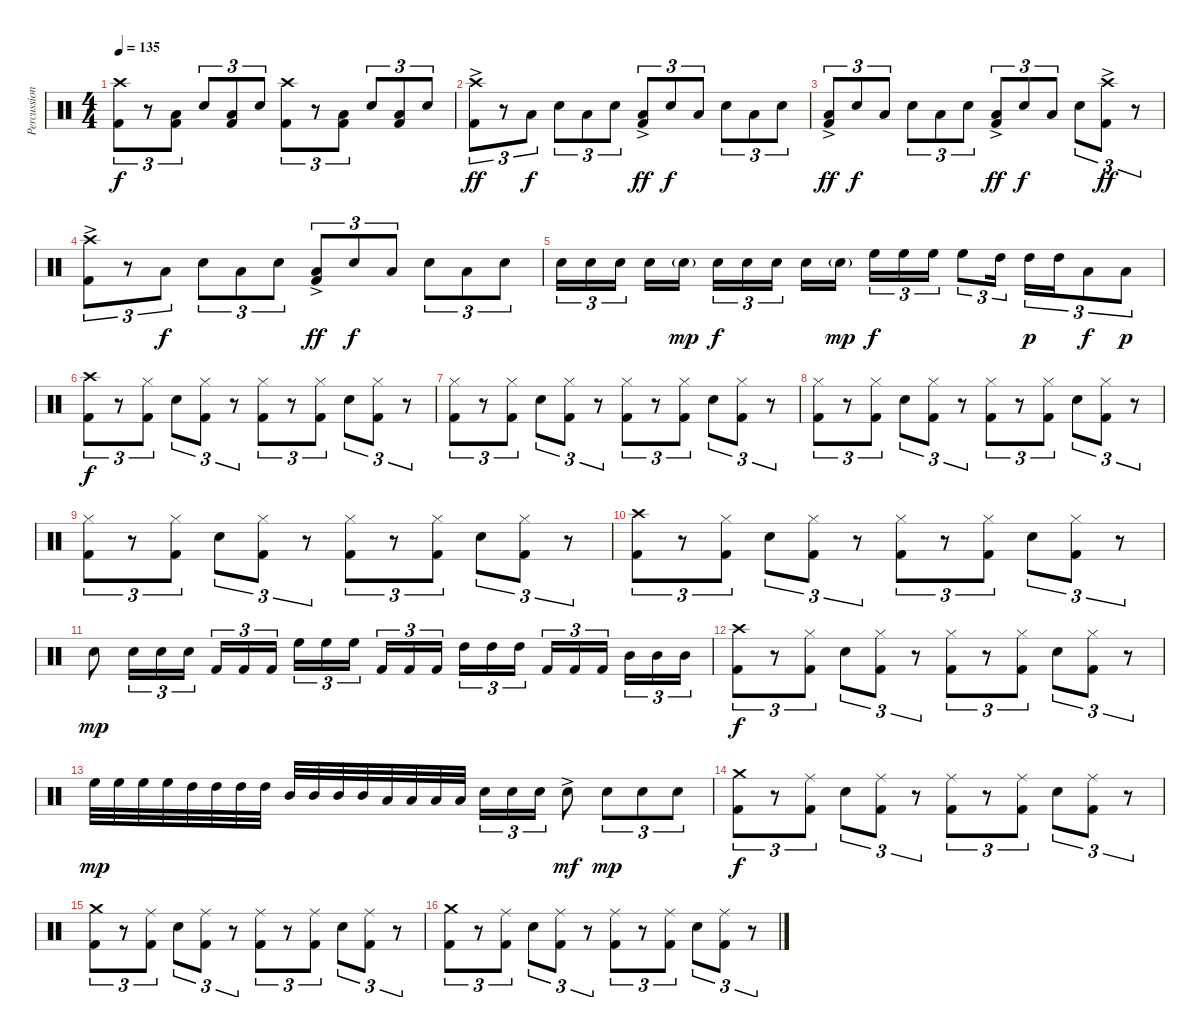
\track ("Percussioni" "Percussion") {instrument percussion}
\staff {score}
\articulation defaults
\ts (4 4)
\tempo 135
\clef neutral
\ks c
("Crash high (hit)" "Kick (hit) 2").8{tu (3 2) dy f} r.8{tu (3 2)} ("Low Tom (hit)" "Kick (hit) 2").8{tu (3 2)} "Electric Snare (hit)".8{tu (3 2)} ("Low Tom (hit)" "Kick (hit) 2").8{tu (3 2)} "Electric Snare (hit)".8{tu (3 2)} ("Crash high (hit)" "Kick (hit) 2").8{tu (3 2)} r.8{tu (3 2)} ("Low Tom (hit)" "Kick (hit) 2").8{tu (3 2)} "Electric Snare (hit)".8{tu (3 2)} ("Low Tom (hit)" "Kick (hit) 2").8{tu (3 2)} "Electric Snare (hit)".8{tu (3 2)} |
("Crash high (hit)" "Kick (hit) 2"{ac}).8{tu (3 2) dy ff} r.8{tu (3 2)} "Low Tom (hit)".8{tu (3 2) dy f} "Electric Snare (hit)".8{tu (3 2)} "Low Tom (hit)".8{tu (3 2)} "Electric Snare (hit)".8{tu (3 2)} ("Low Tom (hit)"{ac} "Kick (hit) 2"{ac}).8{tu (3 2) dy ff} "Electric Snare (hit)".8{tu (3 2) dy f} "Low Tom (hit)".8{tu (3 2)} "Electric Snare (hit)".8{tu (3 2)} "Low Tom (hit)".8{tu (3 2)} "Electric Snare (hit)".8{tu (3 2)} |
("Low Tom (hit)"{ac} "Kick (hit) 2"{ac}).8{tu (3 2) dy ff} "Electric Snare (hit)".8{tu (3 2) dy f} "Low Tom (hit)".8{tu (3 2)} "Electric Snare (hit)".8{tu (3 2)} "Low Tom (hit)".8{tu (3 2)} "Electric Snare (hit)".8{tu (3 2)} ("Low Tom (hit)"{ac} "Kick (hit) 2"{ac}).8{tu (3 2) dy ff} "Electric Snare (hit)".8{tu (3 2) dy f} "Low Tom (hit)".8{tu (3 2)} "Electric Snare (hit)".8{tu (3 2)} ("Crash high (hit)"{ac} "Kick (hit) 2"{ac}).8{tu (3 2) dy ff} r.8{tu (3 2)} |
("Crash high (hit)" "Kick (hit) 2"{ac}).8{tu (3 2)} r.8{tu (3 2)} "Low Tom (hit)".8{tu (3 2) dy f} "Electric Snare (hit)".8{tu (3 2)} "Low Tom (hit)".8{tu (3 2)} "Electric Snare (hit)".8{tu (3 2)} ("Low Tom (hit)"{ac} "Kick (hit) 2"{ac}).8{tu (3 2) dy ff} "Electric Snare (hit)".8{tu (3 2) dy f} "Low Tom (hit)".8{tu (3 2)} "Electric Snare (hit)".8{tu (3 2)} "Low Tom (hit)".8{tu (3 2)} "Electric Snare (hit)".8{tu (3 2)} |
"Electric Snare (hit)".16{tu (3 2)} "Electric Snare (hit)".16{tu (3 2)} "Electric Snare (hit)".16{tu (3 2) beam splitsecondary} "Electric Snare (hit)".16 "Electric Snare (hit)"{g}.16{dy mp} "Electric Snare (hit)".16{tu (3 2) dy f} "Electric Snare (hit)".16{tu (3 2)} "Electric Snare (hit)".16{tu (3 2) beam splitsecondary} "Electric Snare (hit)".16 "Electric Snare (hit)"{g}.16{dy mp} "High Floor Tom (hit)".16{tu (3 2) dy f} "High Floor Tom (hit)".16{tu (3 2)} "High Floor Tom (hit)".16{tu (3 2)} "High Floor Tom (hit)".8{tu (3 2)} "High Tom (hit)".16{tu (3 2)} "High Tom (hit)".16{tu (3 2) dy p} "High Tom (hit)".16{tu (3 2)} "Low Tom (hit)".8{tu (3 2) dy f} "Low Tom (hit)".8{tu (3 2) dy p} |
("Crash high (hit)" "Kick (hit) 2").8{tu (3 2) dy f} r.8{tu (3 2)} ("Hi-Hat (closed)" "Kick (hit) 2").8{tu (3 2)} "Electric Snare (hit)".8{tu (3 2)} ("Hi-Hat (closed)" "Kick (hit) 2").8{tu (3 2)} r.8{tu (3 2)} ("Hi-Hat (closed)" "Kick (hit) 2").8{tu (3 2)} r.8{tu (3 2)} ("Hi-Hat (closed)" "Kick (hit) 2").8{tu (3 2)} "Electric Snare (hit)".8{tu (3 2)} ("Hi-Hat (closed)" "Kick (hit) 2").8{tu (3 2)} r.8{tu (3 2)} |
("Hi-Hat (closed)" "Kick (hit) 2").8{tu (3 2)} r.8{tu (3 2)} ("Hi-Hat (closed)" "Kick (hit) 2").8{tu (3 2)} "Electric Snare (hit)".8{tu (3 2)} ("Hi-Hat (closed)" "Kick (hit) 2").8{tu (3 2)} r.8{tu (3 2)} ("Hi-Hat (closed)" "Kick (hit) 2").8{tu (3 2)} r.8{tu (3 2)} ("Hi-Hat (closed)" "Kick (hit) 2").8{tu (3 2)} "Electric Snare (hit)".8{tu (3 2)} ("Hi-Hat (closed)" "Kick (hit) 2").8{tu (3 2)} r.8{tu (3 2)} |
("Hi-Hat (closed)" "Kick (hit) 2").8{tu (3 2)} r.8{tu (3 2)} ("Hi-Hat (closed)" "Kick (hit) 2").8{tu (3 2)} "Electric Snare (hit)".8{tu (3 2)} ("Hi-Hat (closed)" "Kick (hit) 2").8{tu (3 2)} r.8{tu (3 2)} ("Hi-Hat (closed)" "Kick (hit) 2").8{tu (3 2)} r.8{tu (3 2)} ("Hi-Hat (closed)" "Kick (hit) 2").8{tu (3 2)} "Electric Snare (hit)".8{tu (3 2)} ("Hi-Hat (closed)" "Kick (hit) 2").8{tu (3 2)} r.8{tu (3 2)} |
("Hi-Hat (closed)" "Kick (hit) 2").8{tu (3 2)} r.8{tu (3 2)} ("Hi-Hat (closed)" "Kick (hit) 2").8{tu (3 2)} "Electric Snare (hit)".8{tu (3 2)} ("Hi-Hat (closed)" "Kick (hit) 2").8{tu (3 2)} r.8{tu (3 2)} ("Hi-Hat (closed)" "Kick (hit) 2").8{tu (3 2)} r.8{tu (3 2)} ("Hi-Hat (closed)" "Kick (hit) 2").8{tu (3 2)} "Electric Snare (hit)".8{tu (3 2)} ("Hi-Hat (closed)" "Kick (hit) 2").8{tu (3 2)} r.8{tu (3 2)} |
("Crash high (hit)" "Kick (hit) 2").8{tu (3 2)} r.8{tu (3 2)} ("Hi-Hat (closed)" "Kick (hit) 2").8{tu (3 2)} "Electric Snare (hit)".8{tu (3 2)} ("Hi-Hat (closed)" "Kick (hit) 2").8{tu (3 2)} r.8{tu (3 2)} ("Hi-Hat (closed)" "Kick (hit) 2").8{tu (3 2)} r.8{tu (3 2)} ("Hi-Hat (closed)" "Kick (hit) 2").8{tu (3 2)} "Electric Snare (hit)".8{tu (3 2)} ("Hi-Hat (closed)" "Kick (hit) 2").8{tu (3 2)} r.8{tu (3 2)} |
"Electric Snare (hit)".8{dy mp} "Electric Snare (hit)".16{tu (3 2)} "Electric Snare (hit)".16{tu (3 2)} "Electric Snare (hit)".16{tu (3 2)} "Kick (hit) 2".16{tu (3 2)} "Kick (hit) 2".16{tu (3 2)} "Kick (hit) 2".16{tu (3 2) beam splitsecondary} "High Floor Tom (hit)".16{tu (3 2)} "High Floor Tom (hit)".16{tu (3 2)} "High Floor Tom (hit)".16{tu (3 2)} "Kick (hit) 2".16{tu (3 2)} "Kick (hit) 2".16{tu (3 2)} "Kick (hit) 2".16{tu (3 2) beam splitsecondary} "High Tom (hit)".16{tu (3 2)} "High Tom (hit)".16{tu (3 2)} "High Tom (hit)".16{tu (3 2)} "Kick (hit) 2".16{tu (3 2)} "Kick (hit) 2".16{tu (3 2)} "Kick (hit) 2".16{tu (3 2) beam splitsecondary} "Mid Tom (hit)".16{tu (3 2)} "Mid Tom (hit)".16{tu (3 2)} "Mid Tom (hit)".16{tu (3 2)} |
("Crash high (hit)" "Kick (hit) 2").8{tu (3 2) dy f} r.8{tu (3 2)} ("Hi-Hat (closed)" "Kick (hit) 2").8{tu (3 2)} "Electric Snare (hit)".8{tu (3 2)} ("Hi-Hat (closed)" "Kick (hit) 2").8{tu (3 2)} r.8{tu (3 2)} ("Hi-Hat (closed)" "Kick (hit) 2").8{tu (3 2)} r.8{tu (3 2)} ("Hi-Hat (closed)" "Kick (hit) 2").8{tu (3 2)} "Electric Snare (hit)".8{tu (3 2)} ("Hi-Hat (closed)" "Kick (hit) 2").8{tu (3 2)} r.8{tu (3 2)} |
"High Floor Tom (hit)".32{dy mp} "High Floor Tom (hit)".32 "High Floor Tom (hit)".32 "High Floor Tom (hit)".32 "High Tom (hit)".32 "High Tom (hit)".32 "High Tom (hit)".32 "High Tom (hit)".32 "Mid Tom (hit)".32 "Mid Tom (hit)".32 "Mid Tom (hit)".32 "Mid Tom (hit)".32 "Low Tom (hit)".32 "Low Tom (hit)".32 "Low Tom (hit)".32 "Low Tom (hit)".32 "Electric Snare (hit)".16{tu (3 2)} "Electric Snare (hit)".16{tu (3 2)} "Electric Snare (hit)".16{tu (3 2)} "Electric Snare (hit)"{ac}.8{dy mf} "Electric Snare (hit)".8{tu (3 2) dy mp} "Electric Snare (hit)".8{tu (3 2)} "Electric Snare (hit)".8{tu (3 2)} |
("Crash medium (hit)" "Kick (hit) 2").8{tu (3 2) dy f} r.8{tu (3 2)} ("Ride (middle)" "Kick (hit) 2").8{tu (3 2)} "Electric Snare (hit)".8{tu (3 2)} ("Ride (middle)" "Kick (hit) 2").8{tu (3 2)} r.8{tu (3 2)} ("Ride (middle)" "Kick (hit) 2").8{tu (3 2)} r.8{tu (3 2)} ("Ride (middle)" "Kick (hit) 2").8{tu (3 2)} "Electric Snare (hit)".8{tu (3 2)} ("Ride (middle)" "Kick (hit) 2").8{tu (3 2)} r.8{tu (3 2)} |
("Crash medium (hit)" "Kick (hit) 2").8{tu (3 2)} r.8{tu (3 2)} ("Ride (middle)" "Kick (hit) 2").8{tu (3 2)} "Electric Snare (hit)".8{tu (3 2)} ("Ride (middle)" "Kick (hit) 2").8{tu (3 2)} r.8{tu (3 2)} ("Ride (middle)" "Kick (hit) 2").8{tu (3 2)} r.8{tu (3 2)} ("Ride (middle)" "Kick (hit) 2").8{tu (3 2)} "Electric Snare (hit)".8{tu (3 2)} ("Ride (middle)" "Kick (hit) 2").8{tu (3 2)} r.8{tu (3 2)} |
("Crash medium (hit)" "Kick (hit) 2").8{tu (3 2)} r.8{tu (3 2)} ("Ride (middle)" "Kick (hit) 2").8{tu (3 2)} "Electric Snare (hit)".8{tu (3 2)} ("Ride (middle)" "Kick (hit) 2").8{tu (3 2)} r.8{tu (3 2)} ("Ride (middle)" "Kick (hit) 2").8{tu (3 2)} r.8{tu (3 2)} ("Ride (middle)" "Kick (hit) 2").8{tu (3 2)} "Electric Snare (hit)".8{tu (3 2)} ("Ride (middle)" "Kick (hit) 2").8{tu (3 2)} r.8{tu (3 2)}
